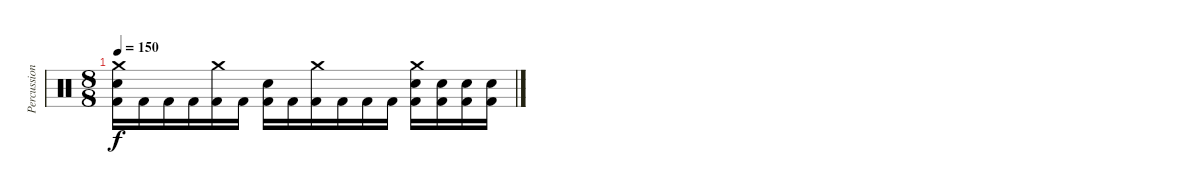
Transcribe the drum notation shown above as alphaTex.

\track ("Percussions" "Percussion") {instrument percussion}
\staff {score}
\articulation defaults
\ts (8 8)
\tempo 150
\clef neutral
\ks c
("Crash medium (hit)" "Electric Snare (hit)" "Kick (hit) 2").16{dy f} "Kick (hit) 2".16 "Kick (hit) 2".16 "Kick (hit) 2".16 ("Crash medium (hit)" "Kick (hit) 2").16 "Kick (hit) 2".16 ("Electric Snare (hit)" "Kick (hit) 2").16 "Kick (hit) 2".16 ("Crash medium (hit)" "Kick (hit) 2").16 "Kick (hit) 2".16 "Kick (hit) 2".16 "Kick (hit) 2".16 ("Crash medium (hit)" "Electric Snare (hit)" "Kick (hit) 2").16 ("Electric Snare (hit)" "Kick (hit) 2").16 ("Electric Snare (hit)" "Kick (hit) 2").16 ("Electric Snare (hit)" "Kick (hit) 2").16
